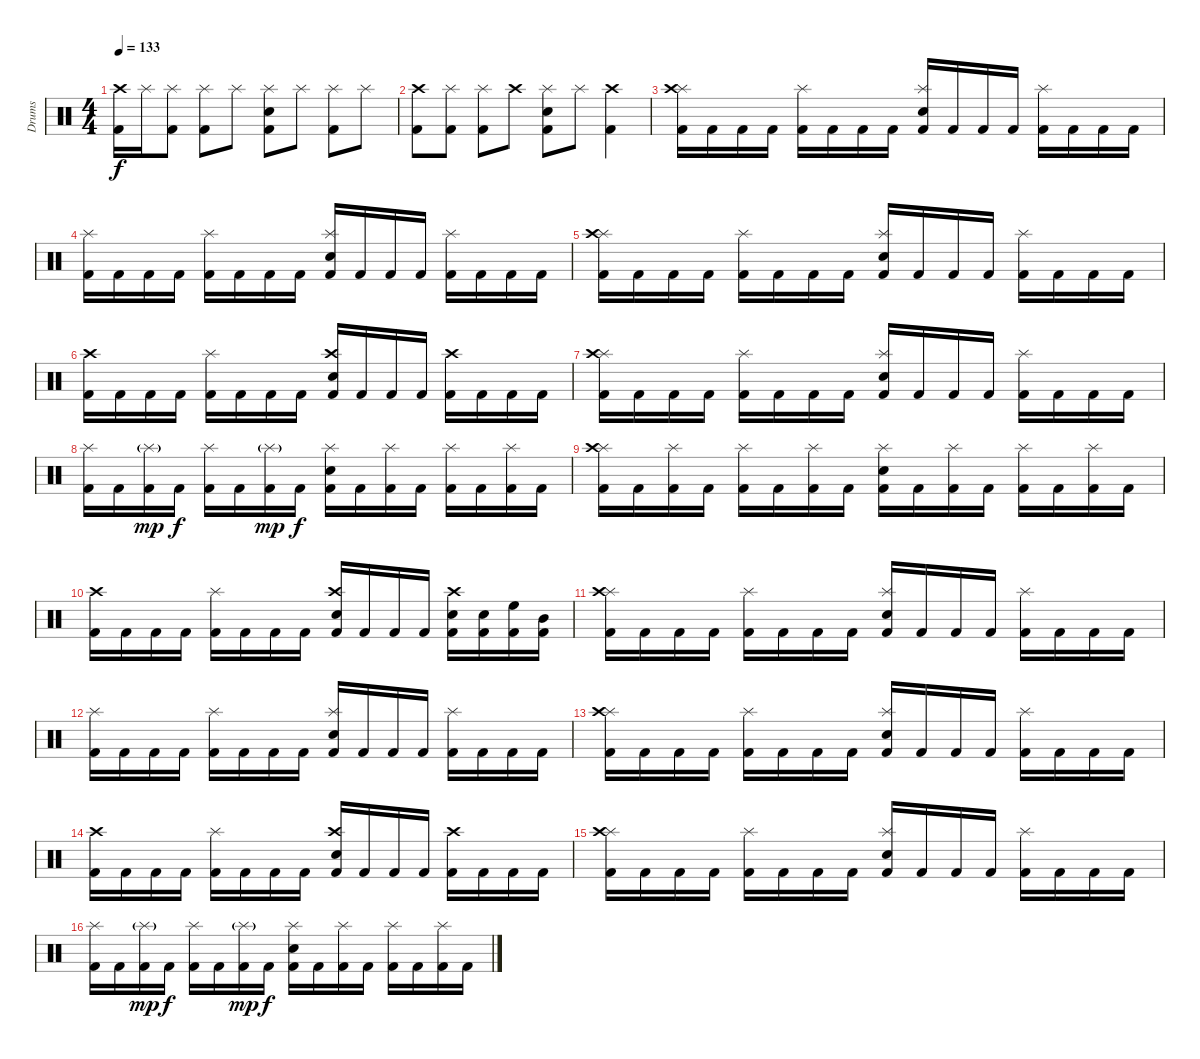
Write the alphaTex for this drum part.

\track ("Drums" "Drums") {instrument percussion}
\staff {score}
\articulation defaults
\ts (4 4)
\tempo 133
\clef neutral
\ks c
("Kick (hit) 2" "Crash high (hit)").16{dy f} "Splash (hit)".16 ("Kick (hit) 2" "Splash (hit)").8 ("Kick (hit) 2" "Splash (hit)").8 "Splash (hit)".8 ("Kick (hit) 2" "Snare (hit) 2" "Splash (hit)").8 "Splash (hit)".8 ("Kick (hit) 2" "Splash (hit)").8 "Splash (hit)".8 |
("Kick (hit) 2" "Crash high (hit)").8 ("Kick (hit) 2" "Splash (hit)").8 ("Kick (hit) 2" "Splash (hit)").8 "Crash high (hit)".8 ("Kick (hit) 2" "Snare (hit) 2" "Splash (hit)").8 "Splash (hit)".8 ("Kick (hit) 2" "Crash high (hit)").4 |
("Kick (hit) 2" "Splash (hit)" "Crash high (hit)").16 "Kick (hit) 2".16 "Kick (hit) 2".16 "Kick (hit) 2".16 ("Kick (hit) 2" "Splash (hit)").16 "Kick (hit) 2".16 "Kick (hit) 2".16 "Kick (hit) 2".16 ("Kick (hit) 2" "Snare (hit) 2" "Splash (hit)").16 "Kick (hit) 2".16 "Kick (hit) 2".16 "Kick (hit) 2".16 ("Kick (hit) 2" "Splash (hit)").16 "Kick (hit) 2".16 "Kick (hit) 2".16 "Kick (hit) 2".16 |
("Kick (hit) 2" "Splash (hit)").16 "Kick (hit) 2".16 "Kick (hit) 2".16 "Kick (hit) 2".16 ("Kick (hit) 2" "Splash (hit)").16 "Kick (hit) 2".16 "Kick (hit) 2".16 "Kick (hit) 2".16 ("Kick (hit) 2" "Snare (hit) 2" "Splash (hit)").16 "Kick (hit) 2".16 "Kick (hit) 2".16 "Kick (hit) 2".16 ("Kick (hit) 2" "Splash (hit)").16 "Kick (hit) 2".16 "Kick (hit) 2".16 "Kick (hit) 2".16 |
("Kick (hit) 2" "Splash (hit)" "Crash high (hit)").16 "Kick (hit) 2".16 "Kick (hit) 2".16 "Kick (hit) 2".16 ("Kick (hit) 2" "Splash (hit)").16 "Kick (hit) 2".16 "Kick (hit) 2".16 "Kick (hit) 2".16 ("Kick (hit) 2" "Snare (hit) 2" "Splash (hit)").16 "Kick (hit) 2".16 "Kick (hit) 2".16 "Kick (hit) 2".16 ("Kick (hit) 2" "Splash (hit)").16 "Kick (hit) 2".16 "Kick (hit) 2".16 "Kick (hit) 2".16 |
("Kick (hit) 2" "Crash high (hit)").16 "Kick (hit) 2".16 "Kick (hit) 2".16 "Kick (hit) 2".16 ("Kick (hit) 2" "Splash (hit)").16 "Kick (hit) 2".16 "Kick (hit) 2".16 "Kick (hit) 2".16 ("Kick (hit) 2" "Snare (hit) 2" "Crash high (hit)").16 "Kick (hit) 2".16 "Kick (hit) 2".16 "Kick (hit) 2".16 ("Kick (hit) 2" "Crash high (hit)").16 "Kick (hit) 2".16 "Kick (hit) 2".16 "Kick (hit) 2".16 |
("Kick (hit) 2" "Splash (hit)" "Crash high (hit)").16 "Kick (hit) 2".16 "Kick (hit) 2".16 "Kick (hit) 2".16 ("Kick (hit) 2" "Splash (hit)").16 "Kick (hit) 2".16 "Kick (hit) 2".16 "Kick (hit) 2".16 ("Kick (hit) 2" "Snare (hit) 2" "Splash (hit)").16 "Kick (hit) 2".16 "Kick (hit) 2".16 "Kick (hit) 2".16 ("Kick (hit) 2" "Splash (hit)").16 "Kick (hit) 2".16 "Kick (hit) 2".16 "Kick (hit) 2".16 |
("Kick (hit) 2" "Splash (hit)").16 "Kick (hit) 2".16 ("Kick (hit) 2" "Splash (hit)"{g}).16{dy mp} "Kick (hit) 2".16{dy f} ("Kick (hit) 2" "Splash (hit)").16 "Kick (hit) 2".16 ("Kick (hit) 2" "Splash (hit)"{g}).16{dy mp} "Kick (hit) 2".16{dy f} ("Kick (hit) 2" "Snare (hit) 2" "Splash (hit)").16 "Kick (hit) 2".16 ("Kick (hit) 2" "Splash (hit)").16 "Kick (hit) 2".16 ("Kick (hit) 2" "Splash (hit)").16 "Kick (hit) 2".16 ("Kick (hit) 2" "Splash (hit)").16 "Kick (hit) 2".16 |
("Kick (hit) 2" "Splash (hit)" "Crash high (hit)").16 "Kick (hit) 2".16 ("Kick (hit) 2" "Splash (hit)").16 "Kick (hit) 2".16 ("Kick (hit) 2" "Splash (hit)").16 "Kick (hit) 2".16 ("Kick (hit) 2" "Splash (hit)").16 "Kick (hit) 2".16 ("Kick (hit) 2" "Snare (hit) 2" "Splash (hit)").16 "Kick (hit) 2".16 ("Kick (hit) 2" "Splash (hit)").16 "Kick (hit) 2".16 ("Kick (hit) 2" "Splash (hit)").16 "Kick (hit) 2".16 ("Kick (hit) 2" "Splash (hit)").16 "Kick (hit) 2".16 |
("Kick (hit) 2" "Crash high (hit)").16 "Kick (hit) 2".16 "Kick (hit) 2".16 "Kick (hit) 2".16 ("Kick (hit) 2" "Splash (hit)").16 "Kick (hit) 2".16 "Kick (hit) 2".16 "Kick (hit) 2".16 ("Kick (hit) 2" "Snare (hit) 2" "Crash high (hit)").16 "Kick (hit) 2".16 "Kick (hit) 2".16 "Kick (hit) 2".16 ("Kick (hit) 2" "Snare (hit) 2" "Crash high (hit)").16 ("Kick (hit) 2" "Snare (hit) 2").16 ("Kick (hit) 2" "High Floor Tom (hit)").16 ("Kick (hit) 2" "Mid Tom (hit)").16 |
("Kick (hit) 2" "Splash (hit)" "Crash high (hit)").16 "Kick (hit) 2".16 "Kick (hit) 2".16 "Kick (hit) 2".16 ("Kick (hit) 2" "Splash (hit)").16 "Kick (hit) 2".16 "Kick (hit) 2".16 "Kick (hit) 2".16 ("Kick (hit) 2" "Snare (hit) 2" "Splash (hit)").16 "Kick (hit) 2".16 "Kick (hit) 2".16 "Kick (hit) 2".16 ("Kick (hit) 2" "Splash (hit)").16 "Kick (hit) 2".16 "Kick (hit) 2".16 "Kick (hit) 2".16 |
("Kick (hit) 2" "Splash (hit)").16 "Kick (hit) 2".16 "Kick (hit) 2".16 "Kick (hit) 2".16 ("Kick (hit) 2" "Splash (hit)").16 "Kick (hit) 2".16 "Kick (hit) 2".16 "Kick (hit) 2".16 ("Kick (hit) 2" "Snare (hit) 2" "Splash (hit)").16 "Kick (hit) 2".16 "Kick (hit) 2".16 "Kick (hit) 2".16 ("Kick (hit) 2" "Splash (hit)").16 "Kick (hit) 2".16 "Kick (hit) 2".16 "Kick (hit) 2".16 |
("Kick (hit) 2" "Splash (hit)" "Crash high (hit)").16 "Kick (hit) 2".16 "Kick (hit) 2".16 "Kick (hit) 2".16 ("Kick (hit) 2" "Splash (hit)").16 "Kick (hit) 2".16 "Kick (hit) 2".16 "Kick (hit) 2".16 ("Kick (hit) 2" "Snare (hit) 2" "Splash (hit)").16 "Kick (hit) 2".16 "Kick (hit) 2".16 "Kick (hit) 2".16 ("Kick (hit) 2" "Splash (hit)").16 "Kick (hit) 2".16 "Kick (hit) 2".16 "Kick (hit) 2".16 |
("Kick (hit) 2" "Crash high (hit)").16 "Kick (hit) 2".16 "Kick (hit) 2".16 "Kick (hit) 2".16 ("Kick (hit) 2" "Splash (hit)").16 "Kick (hit) 2".16 "Kick (hit) 2".16 "Kick (hit) 2".16 ("Kick (hit) 2" "Snare (hit) 2" "Crash high (hit)").16 "Kick (hit) 2".16 "Kick (hit) 2".16 "Kick (hit) 2".16 ("Kick (hit) 2" "Crash high (hit)").16 "Kick (hit) 2".16 "Kick (hit) 2".16 "Kick (hit) 2".16 |
("Kick (hit) 2" "Splash (hit)" "Crash high (hit)").16 "Kick (hit) 2".16 "Kick (hit) 2".16 "Kick (hit) 2".16 ("Kick (hit) 2" "Splash (hit)").16 "Kick (hit) 2".16 "Kick (hit) 2".16 "Kick (hit) 2".16 ("Kick (hit) 2" "Snare (hit) 2" "Splash (hit)").16 "Kick (hit) 2".16 "Kick (hit) 2".16 "Kick (hit) 2".16 ("Kick (hit) 2" "Splash (hit)").16 "Kick (hit) 2".16 "Kick (hit) 2".16 "Kick (hit) 2".16 |
("Kick (hit) 2" "Splash (hit)").16 "Kick (hit) 2".16 ("Kick (hit) 2" "Splash (hit)"{g}).16{dy mp} "Kick (hit) 2".16{dy f} ("Kick (hit) 2" "Splash (hit)").16 "Kick (hit) 2".16 ("Kick (hit) 2" "Splash (hit)"{g}).16{dy mp} "Kick (hit) 2".16{dy f} ("Kick (hit) 2" "Snare (hit) 2" "Splash (hit)").16 "Kick (hit) 2".16 ("Kick (hit) 2" "Splash (hit)").16 "Kick (hit) 2".16 ("Kick (hit) 2" "Splash (hit)").16 "Kick (hit) 2".16 ("Kick (hit) 2" "Splash (hit)").16 "Kick (hit) 2".16
